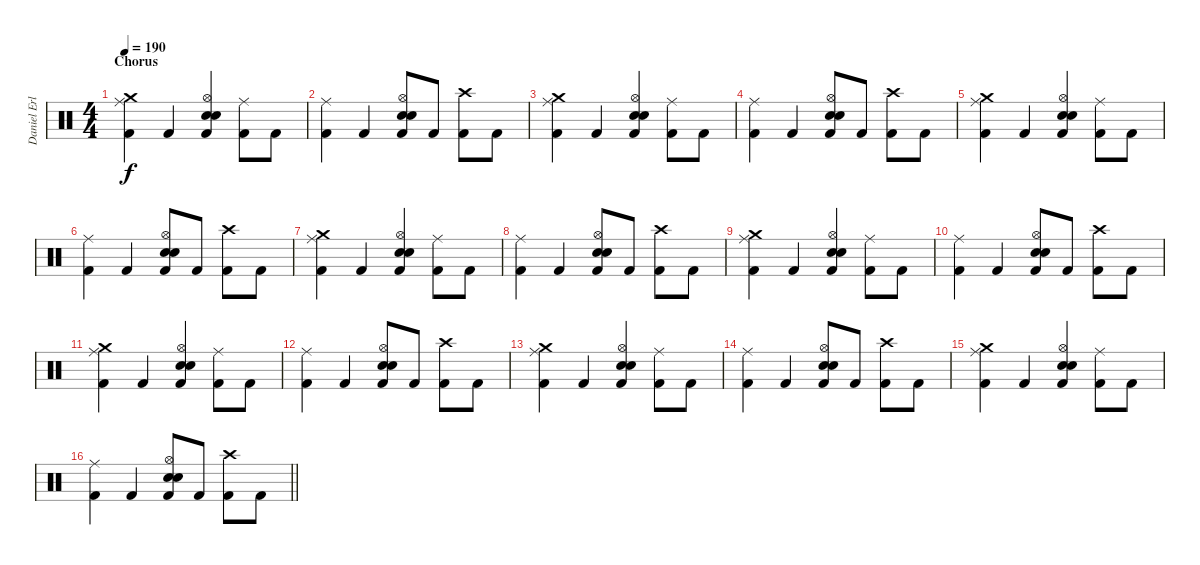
\track ("Daniel Erlandsson" "Daniel Erl") {instrument percussion}
\staff {score}
\articulation defaults
\ts (4 4)
\section ("" "Chorus")
\tempo 190
\clef neutral
\ks c
("Crash medium (hit)" "Ride (middle)" "Kick (hit) 2").4{dy f} "Kick (hit) 2".4 ("Hi-Hat (open)" "Snare (hit) 2" "Electric Snare (hit)" "Kick (hit) 2").4 ("Ride (middle)" "Kick (hit) 2").8 "Kick (hit) 2".8 |
("Ride (middle)" "Kick (hit) 2").4 "Kick (hit) 2".4 ("Hi-Hat (open)" "Snare (hit) 2" "Electric Snare (hit)" "Kick (hit) 2").8 "Kick (hit) 2".8 ("Crash high (hit)" "Kick (hit) 2").8 "Kick (hit) 2".8 |
("Crash medium (hit)" "Ride (middle)" "Kick (hit) 2").4 "Kick (hit) 2".4 ("Hi-Hat (open)" "Snare (hit) 2" "Electric Snare (hit)" "Kick (hit) 2").4 ("Ride (middle)" "Kick (hit) 2").8 "Kick (hit) 2".8 |
("Ride (middle)" "Kick (hit) 2").4 "Kick (hit) 2".4 ("Hi-Hat (open)" "Snare (hit) 2" "Electric Snare (hit)" "Kick (hit) 2").8 "Kick (hit) 2".8 ("Crash high (hit)" "Kick (hit) 2").8 "Kick (hit) 2".8 |
("Crash medium (hit)" "Ride (middle)" "Kick (hit) 2").4 "Kick (hit) 2".4 ("Hi-Hat (open)" "Snare (hit) 2" "Electric Snare (hit)" "Kick (hit) 2").4 ("Ride (middle)" "Kick (hit) 2").8 "Kick (hit) 2".8 |
("Ride (middle)" "Kick (hit) 2").4 "Kick (hit) 2".4 ("Hi-Hat (open)" "Snare (hit) 2" "Electric Snare (hit)" "Kick (hit) 2").8 "Kick (hit) 2".8 ("Crash high (hit)" "Kick (hit) 2").8 "Kick (hit) 2".8 |
("Crash medium (hit)" "Ride (middle)" "Kick (hit) 2").4 "Kick (hit) 2".4 ("Hi-Hat (open)" "Snare (hit) 2" "Electric Snare (hit)" "Kick (hit) 2").4 ("Ride (middle)" "Kick (hit) 2").8 "Kick (hit) 2".8 |
("Ride (middle)" "Kick (hit) 2").4 "Kick (hit) 2".4 ("Hi-Hat (open)" "Snare (hit) 2" "Electric Snare (hit)" "Kick (hit) 2").8 "Kick (hit) 2".8 ("Crash high (hit)" "Kick (hit) 2").8 "Kick (hit) 2".8 |
("Crash medium (hit)" "Ride (middle)" "Kick (hit) 2").4 "Kick (hit) 2".4 ("Hi-Hat (open)" "Snare (hit) 2" "Electric Snare (hit)" "Kick (hit) 2").4 ("Ride (middle)" "Kick (hit) 2").8 "Kick (hit) 2".8 |
("Ride (middle)" "Kick (hit) 2").4 "Kick (hit) 2".4 ("Hi-Hat (open)" "Snare (hit) 2" "Electric Snare (hit)" "Kick (hit) 2").8 "Kick (hit) 2".8 ("Crash high (hit)" "Kick (hit) 2").8 "Kick (hit) 2".8 |
("Crash medium (hit)" "Ride (middle)" "Kick (hit) 2").4 "Kick (hit) 2".4 ("Hi-Hat (open)" "Snare (hit) 2" "Electric Snare (hit)" "Kick (hit) 2").4 ("Ride (middle)" "Kick (hit) 2").8 "Kick (hit) 2".8 |
("Ride (middle)" "Kick (hit) 2").4 "Kick (hit) 2".4 ("Hi-Hat (open)" "Snare (hit) 2" "Electric Snare (hit)" "Kick (hit) 2").8 "Kick (hit) 2".8 ("Crash high (hit)" "Kick (hit) 2").8 "Kick (hit) 2".8 |
("Crash medium (hit)" "Ride (middle)" "Kick (hit) 2").4 "Kick (hit) 2".4 ("Hi-Hat (open)" "Snare (hit) 2" "Electric Snare (hit)" "Kick (hit) 2").4 ("Ride (middle)" "Kick (hit) 2").8 "Kick (hit) 2".8 |
("Ride (middle)" "Kick (hit) 2").4 "Kick (hit) 2".4 ("Hi-Hat (open)" "Snare (hit) 2" "Electric Snare (hit)" "Kick (hit) 2").8 "Kick (hit) 2".8 ("Crash high (hit)" "Kick (hit) 2").8 "Kick (hit) 2".8 |
("Crash medium (hit)" "Ride (middle)" "Kick (hit) 2").4 "Kick (hit) 2".4 ("Hi-Hat (open)" "Snare (hit) 2" "Electric Snare (hit)" "Kick (hit) 2").4 ("Ride (middle)" "Kick (hit) 2").8 "Kick (hit) 2".8 |
\barLineRight lightlight
("Ride (middle)" "Kick (hit) 2").4 "Kick (hit) 2".4 ("Hi-Hat (open)" "Snare (hit) 2" "Electric Snare (hit)" "Kick (hit) 2").8 "Kick (hit) 2".8 ("Crash high (hit)" "Kick (hit) 2").8 "Kick (hit) 2".8
